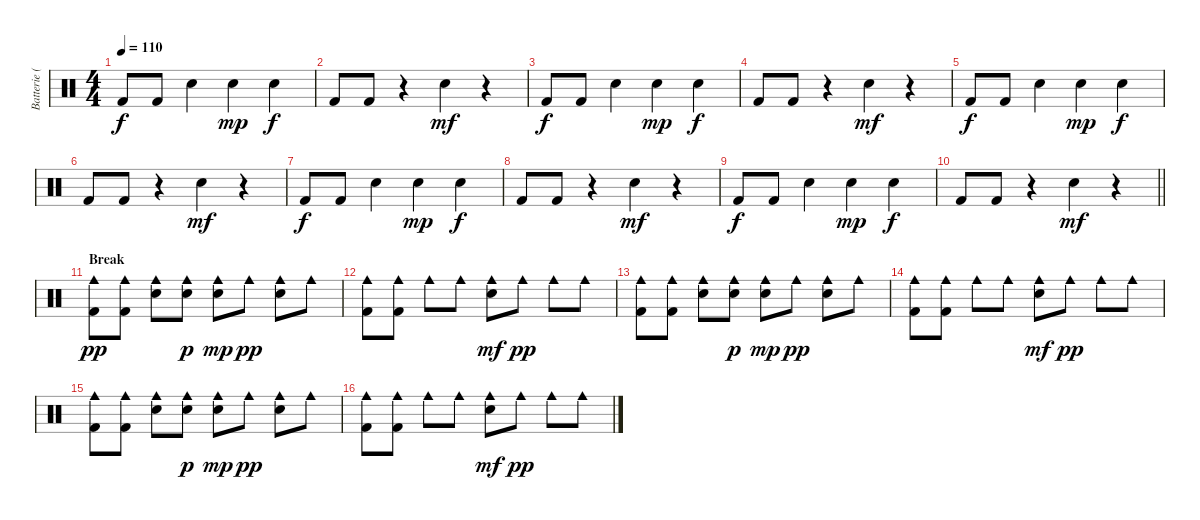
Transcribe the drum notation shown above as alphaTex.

\track ("Batterie (Fanny)" "Batterie (") {instrument percussion}
\staff {score}
\articulation defaults
\ts (4 4)
\tempo 110
\clef neutral
\ks c "Kick (hit) 2".8{dy f} "Kick (hit) 2".8 "Snare (hit) 2".4 "Snare (hit) 2".4{dy mp} "Snare (hit) 2".4{dy f}
|
"Kick (hit) 2".8 "Kick (hit) 2".8 r.4 "Snare (hit) 2".4{dy mf} r.4 |
"Kick (hit) 2".8{dy f} "Kick (hit) 2".8 "Snare (hit) 2".4 "Snare (hit) 2".4{dy mp} "Snare (hit) 2".4{dy f} |
"Kick (hit) 2".8 "Kick (hit) 2".8 r.4 "Snare (hit) 2".4{dy mf} r.4 |
"Kick (hit) 2".8{dy f} "Kick (hit) 2".8 "Snare (hit) 2".4 "Snare (hit) 2".4{dy mp} "Snare (hit) 2".4{dy f} |
"Kick (hit) 2".8 "Kick (hit) 2".8 r.4 "Snare (hit) 2".4{dy mf} r.4 |
"Kick (hit) 2".8{dy f} "Kick (hit) 2".8 "Snare (hit) 2".4 "Snare (hit) 2".4{dy mp} "Snare (hit) 2".4{dy f} |
"Kick (hit) 2".8 "Kick (hit) 2".8 r.4 "Snare (hit) 2".4{dy mf} r.4 |
"Kick (hit) 2".8{dy f} "Kick (hit) 2".8 "Snare (hit) 2".4 "Snare (hit) 2".4{dy mp} "Snare (hit) 2".4{dy f} |
\barLineRight lightlight "Kick (hit) 2".8 "Kick (hit) 2".8
r.4 "Snare (hit) 2".4{dy mf} r.4 |
\section ("" "Break")
("Cowbell medium (hit)" "Kick (hit) 2").8{dy pp} ("Cowbell medium (hit)" "Kick (hit) 2").8 ("Cowbell medium (hit)" "Snare (hit) 2").8 ("Cowbell medium (hit)" "Snare (hit) 2").8{dy p} ("Cowbell medium (hit)" "Snare (hit) 2").8{dy mp} "Cowbell medium (hit)".8{dy pp} ("Cowbell medium (hit)" "Snare (hit) 2").8 "Cowbell medium (hit)".8 |
("Cowbell medium (hit)" "Kick (hit) 2").8 ("Cowbell medium (hit)" "Kick (hit) 2").8 "Cowbell medium (hit)".8 "Cowbell medium (hit)".8 ("Cowbell medium (hit)" "Snare (hit) 2").8{dy mf} "Cowbell medium (hit)".8{dy pp} "Cowbell medium (hit)".8 "Cowbell medium (hit)".8 |
("Cowbell medium (hit)" "Kick (hit) 2").8 ("Cowbell medium (hit)" "Kick (hit) 2").8 ("Cowbell medium (hit)" "Snare (hit) 2").8 ("Cowbell medium (hit)" "Snare (hit) 2").8{dy p} ("Cowbell medium (hit)" "Snare (hit) 2").8{dy mp} "Cowbell medium (hit)".8{dy pp} ("Cowbell medium (hit)" "Snare (hit) 2").8 "Cowbell medium (hit)".8 |
("Cowbell medium (hit)" "Kick (hit) 2").8 ("Cowbell medium (hit)" "Kick (hit) 2").8 "Cowbell medium (hit)".8 "Cowbell medium (hit)".8 ("Cowbell medium (hit)" "Snare (hit) 2").8{dy mf} "Cowbell medium (hit)".8{dy pp} "Cowbell medium (hit)".8 "Cowbell medium (hit)".8 |
("Cowbell medium (hit)" "Kick (hit) 2").8 ("Cowbell medium (hit)" "Kick (hit) 2").8 ("Cowbell medium (hit)" "Snare (hit) 2").8 ("Cowbell medium (hit)" "Snare (hit) 2").8{dy p} ("Cowbell medium (hit)" "Snare (hit) 2").8{dy mp} "Cowbell medium (hit)".8{dy pp} ("Cowbell medium (hit)" "Snare (hit) 2").8 "Cowbell medium (hit)".8 |
("Cowbell medium (hit)" "Kick (hit) 2").8 ("Cowbell medium (hit)" "Kick (hit) 2").8 "Cowbell medium (hit)".8 "Cowbell medium (hit)".8 ("Cowbell medium (hit)" "Snare (hit) 2").8{dy mf} "Cowbell medium (hit)".8{dy pp} "Cowbell medium (hit)".8 "Cowbell medium (hit)".8
